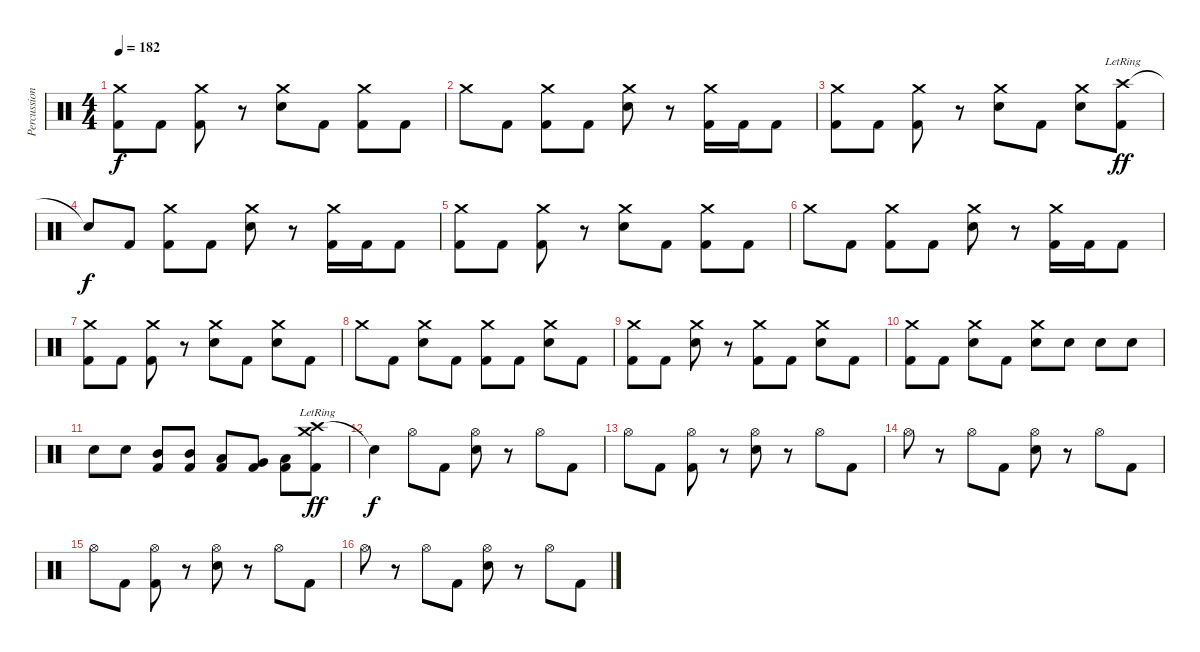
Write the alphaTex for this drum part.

\track ("Percussions" "Percussion") {instrument percussion}
\staff {score}
\articulation defaults
\ts (4 4)
\tempo 182
\clef neutral
\ks c
("Crash medium (hit)" "Kick (hit) 2").8{dy f} "Kick (hit) 2".8 ("Crash medium (hit)" "Kick (hit) 2").8 r.8 ("Crash medium (hit)" "Electric Snare (hit)").8 "Kick (hit) 2".8 ("Crash medium (hit)" "Kick (hit) 2").8 "Kick (hit) 2".8 |
"Crash medium (hit)".8 "Kick (hit) 2".8 ("Crash medium (hit)" "Kick (hit) 2").8 "Kick (hit) 2".8 ("Crash medium (hit)" "Electric Snare (hit)").8 r.8 ("Crash medium (hit)" "Kick (hit) 2").16 "Kick (hit) 2".16 "Kick (hit) 2".8 |
("Crash medium (hit)" "Kick (hit) 2").8 "Kick (hit) 2".8 ("Crash medium (hit)" "Kick (hit) 2").8 r.8 ("Crash medium (hit)" "Electric Snare (hit)").8 "Kick (hit) 2".8 ("Crash medium (hit)" "Electric Snare (hit)").8 ("Crash high (hit)"{lr} "Kick (hit) 2").8{dy ff} |
"Snare (hit)"{t}.8{dy f} "Kick (hit) 2".8 ("Crash medium (hit)" "Kick (hit) 2").8 "Kick (hit) 2".8 ("Crash medium (hit)" "Electric Snare (hit)").8 r.8 ("Crash medium (hit)" "Kick (hit) 2").16 "Kick (hit) 2".16 "Kick (hit) 2".8 |
("Crash medium (hit)" "Kick (hit) 2").8 "Kick (hit) 2".8 ("Crash medium (hit)" "Kick (hit) 2").8 r.8 ("Crash medium (hit)" "Electric Snare (hit)").8 "Kick (hit) 2".8 ("Crash medium (hit)" "Kick (hit) 2").8 "Kick (hit) 2".8 |
"Crash medium (hit)".8 "Kick (hit) 2".8 ("Crash medium (hit)" "Kick (hit) 2").8 "Kick (hit) 2".8 ("Crash medium (hit)" "Electric Snare (hit)").8 r.8 ("Crash medium (hit)" "Kick (hit) 2").16 "Kick (hit) 2".16 "Kick (hit) 2".8 |
("Crash medium (hit)" "Kick (hit) 2").8 "Kick (hit) 2".8 ("Crash medium (hit)" "Kick (hit) 2").8 r.8 ("Crash medium (hit)" "Electric Snare (hit)").8 "Kick (hit) 2".8 ("Crash medium (hit)" "Electric Snare (hit)").8 "Kick (hit) 2".8 |
"Crash medium (hit)".8 "Kick (hit) 2".8 ("Crash medium (hit)" "Electric Snare (hit)").8 "Kick (hit) 2".8 ("Crash medium (hit)" "Kick (hit) 2").8 "Kick (hit) 2".8 ("Crash medium (hit)" "Electric Snare (hit)").8 "Kick (hit) 2".8 |
("Crash medium (hit)" "Kick (hit) 2").8 "Kick (hit) 2".8 ("Crash medium (hit)" "Electric Snare (hit)").8 r.8 ("Crash medium (hit)" "Kick (hit) 2").8 "Kick (hit) 2".8 ("Crash medium (hit)" "Electric Snare (hit)").8 "Kick (hit) 2".8 |
("Crash medium (hit)" "Kick (hit) 2").8 "Kick (hit) 2".8 ("Crash medium (hit)" "Electric Snare (hit)").8 "Kick (hit) 2".8 ("Crash medium (hit)" "Electric Snare (hit)").8 "Electric Snare (hit)".8 "Electric Snare (hit)".8 "Electric Snare (hit)".8 |
"Electric Snare (hit)".8 "Electric Snare (hit)".8 ("Mid Tom (hit)" "Kick (hit) 2").8 ("Mid Tom (hit)" "Kick (hit) 2").8 ("Low Tom (hit)" "Kick (hit) 2").8 ("Very Low Tom (hit)" "Kick (hit) 2").8 ("Low Floor Tom (hit)" "Kick (hit) 2").8 ("Crash high (hit)"{lr} "Crash medium (hit)"{lr} "Kick (hit) 2").8{dy ff} |
"Snare (hit)"{t}.4{dy f} "Hi-Hat (open)".8 "Kick (hit) 2".8 ("Hi-Hat (open)" "Electric Snare (hit)").8 r.8 "Hi-Hat (open)".8 "Kick (hit) 2".8 |
"Hi-Hat (open)".8 "Kick (hit) 2".8 ("Hi-Hat (open)" "Kick (hit) 2").8 r.8 ("Hi-Hat (open)" "Electric Snare (hit)").8 r.8 "Hi-Hat (open)".8 "Kick (hit) 2".8 |
"Hi-Hat (open)".8 r.8 "Hi-Hat (open)".8 "Kick (hit) 2".8 ("Hi-Hat (open)" "Electric Snare (hit)").8 r.8 "Hi-Hat (open)".8 "Kick (hit) 2".8 |
"Hi-Hat (open)".8 "Kick (hit) 2".8 ("Hi-Hat (open)" "Kick (hit) 2").8 r.8 ("Hi-Hat (open)" "Electric Snare (hit)").8 r.8 "Hi-Hat (open)".8 "Kick (hit) 2".8 |
"Hi-Hat (open)".8 r.8 "Hi-Hat (open)".8 "Kick (hit) 2".8 ("Hi-Hat (open)" "Electric Snare (hit)").8 r.8 "Hi-Hat (open)".8 "Kick (hit) 2".8
